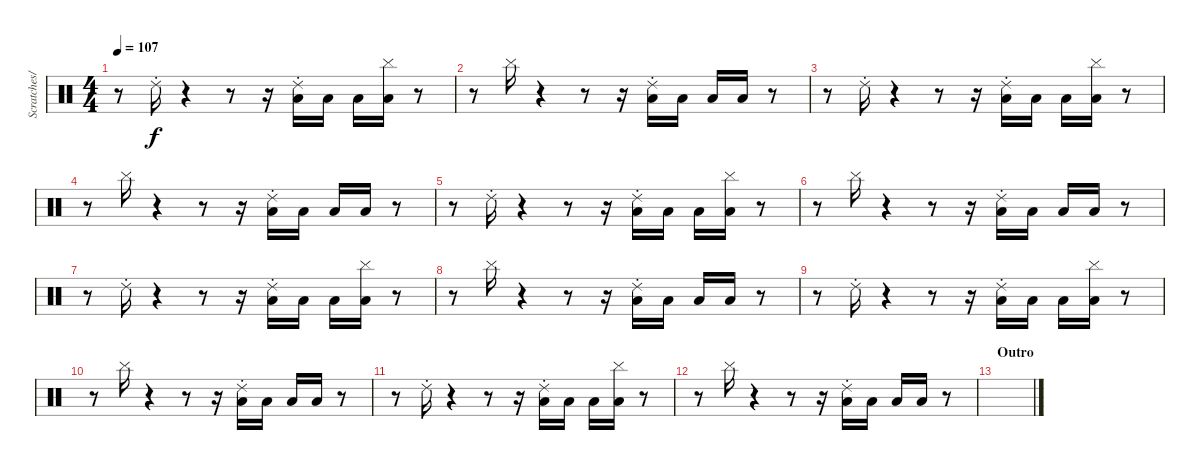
\track ("Scratches/Toms" "Scratches/") {instrument percussion}
\staff {score}
\articulation defaults
\ts (4 4)
\tempo 107
\clef neutral
\ks c
r.8{dy f} "Ride (choke) 2".16 r.4 r.8 r.16 ("Low Floor Tom (hit)" "Ride (choke) 2").16 "Low Floor Tom (hit)".16 "Low Floor Tom (hit)".16 ("Low Floor Tom (hit)" "Cymbal (hit)").16 r.8 |
r.8 "Cymbal (hit)".16 r.4 r.8 r.16 ("Low Floor Tom (hit)" "Ride (choke) 2").16 "Low Floor Tom (hit)".16 "Low Floor Tom (hit)".16 "Low Floor Tom (hit)".16 r.8 |
r.8 "Ride (choke) 2".16 r.4 r.8 r.16 ("Low Floor Tom (hit)" "Ride (choke) 2").16 "Low Floor Tom (hit)".16 "Low Floor Tom (hit)".16 ("Low Floor Tom (hit)" "Cymbal (hit)").16 r.8 |
r.8 "Cymbal (hit)".16 r.4 r.8 r.16 ("Low Floor Tom (hit)" "Ride (choke) 2").16 "Low Floor Tom (hit)".16 "Low Floor Tom (hit)".16 "Low Floor Tom (hit)".16 r.8 |
r.8 "Ride (choke) 2".16 r.4 r.8 r.16 ("Low Floor Tom (hit)" "Ride (choke) 2").16 "Low Floor Tom (hit)".16 "Low Floor Tom (hit)".16 ("Low Floor Tom (hit)" "Cymbal (hit)").16 r.8 |
r.8 "Cymbal (hit)".16 r.4 r.8 r.16 ("Low Floor Tom (hit)" "Ride (choke) 2").16 "Low Floor Tom (hit)".16 "Low Floor Tom (hit)".16 "Low Floor Tom (hit)".16 r.8 |
r.8 "Ride (choke) 2".16 r.4 r.8 r.16 ("Low Floor Tom (hit)" "Ride (choke) 2").16 "Low Floor Tom (hit)".16 "Low Floor Tom (hit)".16 ("Low Floor Tom (hit)" "Cymbal (hit)").16 r.8 |
r.8 "Cymbal (hit)".16 r.4 r.8 r.16 ("Low Floor Tom (hit)" "Ride (choke) 2").16 "Low Floor Tom (hit)".16 "Low Floor Tom (hit)".16 "Low Floor Tom (hit)".16 r.8 |
r.8 "Ride (choke) 2".16 r.4 r.8 r.16 ("Low Floor Tom (hit)" "Ride (choke) 2").16 "Low Floor Tom (hit)".16 "Low Floor Tom (hit)".16 ("Low Floor Tom (hit)" "Cymbal (hit)").16 r.8 |
r.8 "Cymbal (hit)".16 r.4 r.8 r.16 ("Low Floor Tom (hit)" "Ride (choke) 2").16 "Low Floor Tom (hit)".16 "Low Floor Tom (hit)".16 "Low Floor Tom (hit)".16 r.8 |
r.8 "Ride (choke) 2".16 r.4 r.8 r.16 ("Low Floor Tom (hit)" "Ride (choke) 2").16 "Low Floor Tom (hit)".16 "Low Floor Tom (hit)".16 ("Low Floor Tom (hit)" "Cymbal (hit)").16 r.8 |
r.8 "Cymbal (hit)".16 r.4 r.8 r.16 ("Low Floor Tom (hit)" "Ride (choke) 2").16 "Low Floor Tom (hit)".16 "Low Floor Tom (hit)".16 "Low Floor Tom (hit)".16 r.8 |
\section ("" "Outro")
